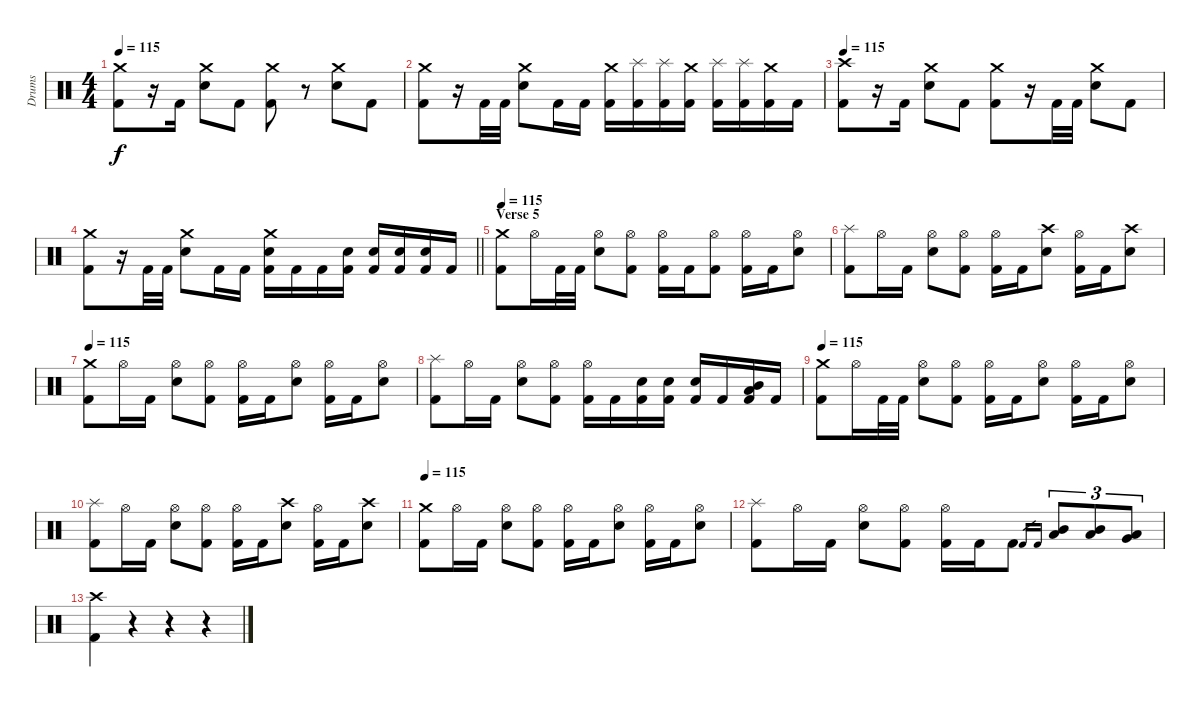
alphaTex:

\track ("Drums" "Drums") {instrument percussion}
\staff {score}
\articulation defaults
\ts (4 4)
\tempo 110
\tempo 115
\clef neutral
\ks c
("Crash medium (hit)" "Kick (hit) 2").8{dy f} r.16 "Kick (hit) 2".16 ("Crash medium (hit)" "Electric Snare (hit)").8 "Kick (hit) 2".8 ("Crash medium (hit)" "Kick (hit) 2").8 r.8 ("Crash medium (hit)" "Electric Snare (hit)").8 "Kick (hit) 2".8 |
("Crash medium (hit)" "Kick (hit) 2").8 r.16 "Kick (hit) 2".32 "Kick (hit) 2".32 ("Crash medium (hit)" "Electric Snare (hit)").8 "Kick (hit) 2".16 "Kick (hit) 2".16 ("Crash medium (hit)" "Kick (hit) 2").16 ("Splash (hit)" "Kick (hit) 2").16 ("Splash (hit)" "Kick (hit) 2").16 ("Crash medium (hit)" "Kick (hit) 2").16 ("Splash (hit)" "Kick (hit) 2").16 ("Splash (hit)" "Kick (hit) 2").16 ("Crash medium (hit)" "Kick (hit) 2").16 "Kick (hit) 2".16 |
\tempo 115
("Crash high (hit)" "Kick (hit) 2").8 r.16 "Kick (hit) 2".16 ("Crash medium (hit)" "Electric Snare (hit)").8 "Kick (hit) 2".8 ("Crash medium (hit)" "Kick (hit) 2").8 r.16 "Kick (hit) 2".32 "Kick (hit) 2".32 ("Crash medium (hit)" "Electric Snare (hit)").8 "Kick (hit) 2".8 |
\barLineRight lightlight
("Crash medium (hit)" "Kick (hit) 2").8 r.16 "Kick (hit) 2".32 "Kick (hit) 2".32 ("Crash medium (hit)" "Electric Snare (hit)").8 "Kick (hit) 2".16 "Kick (hit) 2".16 ("Crash medium (hit)" "Electric Snare (hit)" "Kick (hit) 2").16 "Kick (hit) 2".16 "Kick (hit) 2".16 ("Electric Snare (hit)" "Kick (hit) 2").16 ("Electric Snare (hit)" "Kick (hit) 2").16 ("Electric Snare (hit)" "Kick (hit) 2").16 ("Electric Snare (hit)" "Kick (hit) 2").16 "Kick (hit) 2".16 |
\section ("" "Verse 5")
\tempo 115
("Crash medium (hit)" "Kick (hit) 2").8 "Hi-Hat (open)".16 "Kick (hit) 2".32 "Kick (hit) 2".32 ("Hi-Hat (open)" "Electric Snare (hit)").8 ("Hi-Hat (open)" "Kick (hit) 2").8 ("Hi-Hat (open)" "Kick (hit) 2").16 "Kick (hit) 2".16 ("Hi-Hat (open)" "Kick (hit) 2").8 ("Hi-Hat (open)" "Kick (hit) 2").16 "Kick (hit) 2".16 ("Hi-Hat (open)" "Electric Snare (hit)").8 |
("Splash (hit)" "Kick (hit) 2").8 "Hi-Hat (open)".16 "Kick (hit) 2".16 ("Hi-Hat (open)" "Electric Snare (hit)").8 ("Hi-Hat (open)" "Kick (hit) 2").8 ("Hi-Hat (open)" "Kick (hit) 2").16 "Kick (hit) 2".16 ("Crash high (hit)" "Electric Snare (hit)").8 ("Hi-Hat (open)" "Kick (hit) 2").16 "Kick (hit) 2".16 ("Crash high (hit)" "Electric Snare (hit)").8 |
\tempo 115
("Crash medium (hit)" "Kick (hit) 2").8 "Hi-Hat (open)".16 "Kick (hit) 2".16 ("Hi-Hat (open)" "Electric Snare (hit)").8 ("Hi-Hat (open)" "Kick (hit) 2").8 ("Hi-Hat (open)" "Kick (hit) 2").16 "Kick (hit) 2".16 ("Hi-Hat (open)" "Electric Snare (hit)").8 ("Hi-Hat (open)" "Kick (hit) 2").16 "Kick (hit) 2".16 ("Hi-Hat (open)" "Electric Snare (hit)").8 |
("Splash (hit)" "Kick (hit) 2").8 "Hi-Hat (open)".16 "Kick (hit) 2".16 ("Hi-Hat (open)" "Electric Snare (hit)").8 ("Hi-Hat (open)" "Kick (hit) 2").8 ("Hi-Hat (open)" "Kick (hit) 2").16 "Kick (hit) 2".16 ("Electric Snare (hit)" "Kick (hit) 2").16 ("Electric Snare (hit)" "Kick (hit) 2").16 ("Electric Snare (hit)" "Kick (hit) 2").16 "Kick (hit) 2".16 ("Mid Tom (hit)" "Low Tom (hit)" "Kick (hit) 2").16 "Kick (hit) 2".16 |
\tempo 115
("Crash medium (hit)" "Kick (hit) 2").8 "Hi-Hat (open)".16 "Kick (hit) 2".32 "Kick (hit) 2".32 ("Hi-Hat (open)" "Electric Snare (hit)").8 ("Hi-Hat (open)" "Kick (hit) 2").8 ("Hi-Hat (open)" "Kick (hit) 2").16 "Kick (hit) 2".16 ("Hi-Hat (open)" "Electric Snare (hit)").8 ("Hi-Hat (open)" "Kick (hit) 2").16 "Kick (hit) 2".16 ("Hi-Hat (open)" "Electric Snare (hit)").8 |
("Splash (hit)" "Kick (hit) 2").8 "Hi-Hat (open)".16 "Kick (hit) 2".16 ("Hi-Hat (open)" "Electric Snare (hit)").8 ("Hi-Hat (open)" "Kick (hit) 2").8 ("Hi-Hat (open)" "Kick (hit) 2").16 "Kick (hit) 2".16 ("Crash high (hit)" "Electric Snare (hit)").8 ("Hi-Hat (open)" "Kick (hit) 2").16 "Kick (hit) 2".16 ("Crash high (hit)" "Electric Snare (hit)").8 |
\tempo 115
("Crash medium (hit)" "Kick (hit) 2").8 "Hi-Hat (open)".16 "Kick (hit) 2".16 ("Hi-Hat (open)" "Electric Snare (hit)").8 ("Hi-Hat (open)" "Kick (hit) 2").8 ("Hi-Hat (open)" "Kick (hit) 2").16 "Kick (hit) 2".16 ("Hi-Hat (open)" "Electric Snare (hit)").8 ("Hi-Hat (open)" "Kick (hit) 2").16 "Kick (hit) 2".16 ("Hi-Hat (open)" "Electric Snare (hit)").8 |
("Splash (hit)" "Kick (hit) 2").8 "Hi-Hat (open)".16 "Kick (hit) 2".16 ("Hi-Hat (open)" "Electric Snare (hit)").8 ("Hi-Hat (open)" "Kick (hit) 2").8 ("Hi-Hat (open)" "Kick (hit) 2").16 "Kick (hit) 2".16 "Kick (hit) 2".8 "Kick (hit) 2".16{gr} "Kick (hit) 2".16{gr} ("Mid Tom (hit)" "Low Tom (hit)").8{tu (3 2)} ("Mid Tom (hit)" "Low Tom (hit)").8{tu (3 2)} ("Low Tom (hit)" "Very Low Tom (hit)").8{tu (3 2)} |
("Crash high (hit)" "Kick (hit) 2").4 r.4 r.4 r.4
